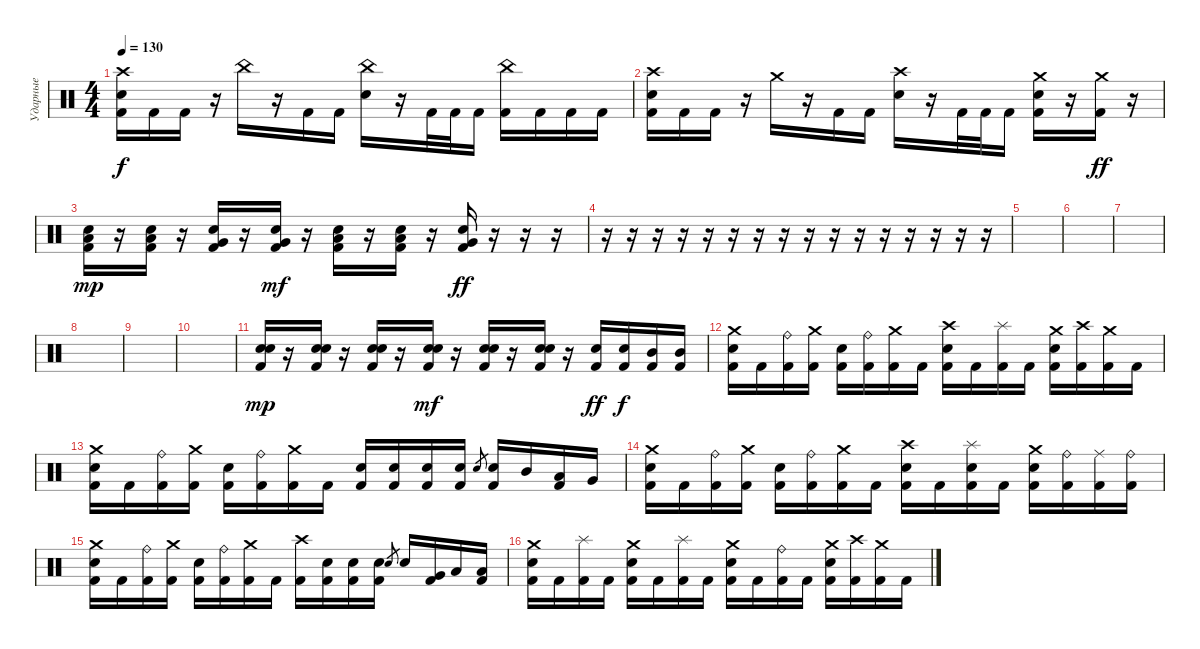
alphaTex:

\track ("Ударные" "Ударные") {instrument percussion}
\staff {score}
\articulation defaults
\ts (4 4)
\tempo 130
\clef neutral
\ks c
("Crash high (hit)" "Electric Snare (hit)" "Kick (hit) 2").16{dy f} "Kick (hit) 2".16 "Kick (hit) 2".16 r.16 "China (hit)".16 r.16 "Kick (hit) 2".16 "Kick (hit) 2".16 ("China (hit)" "Electric Snare (hit)").16 r.16 "Kick (hit) 2".32 "Kick (hit) 2".32 "Kick (hit) 2".16 ("China (hit)" "Kick (hit) 2").16 "Kick (hit) 2".16 "Kick (hit) 2".16 "Kick (hit) 2".16 |
("Crash high (hit)" "Electric Snare (hit)" "Kick (hit) 2").16 "Kick (hit) 2".16 "Kick (hit) 2".16 r.16 "Crash medium (hit)".16 r.16 "Kick (hit) 2".16 "Kick (hit) 2".16 ("Crash high (hit)" "Electric Snare (hit)").16 r.16 "Kick (hit) 2".32 "Kick (hit) 2".32 "Kick (hit) 2".16 ("Crash medium (hit)" "Electric Snare (hit)" "Kick (hit) 2").16 r.16 ("Crash medium (hit)" "Kick (hit) 2").16{dy ff} r.16 |
("Low Floor Tom (hit)" "Electric Snare (hit)" "Kick (hit) 2").16{dy mp} r.16 ("Low Floor Tom (hit)" "Electric Snare (hit)" "Kick (hit) 2").16 r.16 ("Very Low Tom (hit)" "Electric Snare (hit)" "Kick (hit) 2").16 r.16 ("Very Low Tom (hit)" "Electric Snare (hit)" "Kick (hit) 2").16{dy mf} r.16 ("Low Tom (hit)" "Electric Snare (hit)" "Kick (hit) 2").16 r.16 ("Low Tom (hit)" "Electric Snare (hit)" "Kick (hit) 2").16 r.16 ("Very Low Tom (hit)" "Electric Snare (hit)" "Kick (hit) 2").16{dy ff} r.16 r.16 r.16 |
r.16 r.16 r.16 r.16 r.16 r.16 r.16 r.16 r.16 r.16 r.16 r.16 r.16 r.16 r.16 r.16 |
|
|
|
|
|
|
("Electric Snare (hit)" "Electric Snare (hit)" "Kick (hit) 2").16{dy mp} r.16 ("Electric Snare (hit)" "Electric Snare (hit)" "Kick (hit) 2").16 r.16 ("Electric Snare (hit)" "Electric Snare (hit)" "Kick (hit) 2").16 r.16 ("Electric Snare (hit)" "Electric Snare (hit)" "Kick (hit) 2").16{dy mf} r.16 ("Electric Snare (hit)" "Electric Snare (hit)" "Kick (hit) 2").16 r.16 ("Electric Snare (hit)" "Electric Snare (hit)" "Kick (hit) 2").16 r.16 ("Electric Snare (hit)" "Kick (hit) 2").16{dy ff} ("Electric Snare (hit)" "Kick (hit) 2").16{dy f} ("Mid Tom (hit)" "Kick (hit) 2").16 ("Mid Tom (hit)" "Kick (hit) 2").16 |
("Crash medium (hit)" "Electric Snare (hit)" "Kick (hit) 2").16 "Kick (hit) 2".16 ("Ride (bell)" "Kick (hit) 2").16 ("Crash medium (hit)" "Kick (hit) 2").16 ("Electric Snare (hit)" "Kick (hit) 2").16 ("Ride (bell)" "Kick (hit) 2").16 ("Crash medium (hit)" "Kick (hit) 2").16 "Kick (hit) 2".16 ("Crash high (hit)" "Electric Snare (hit)" "Kick (hit) 2").16 "Kick (hit) 2".16 ("Splash (hit)" "Kick (hit) 2").16 "Kick (hit) 2".16 ("Crash medium (hit)" "Electric Snare (hit)" "Kick (hit) 2").16 ("Crash high (hit)" "Kick (hit) 2").16 ("Crash medium (hit)" "Kick (hit) 2").16 "Kick (hit) 2".16 |
("Crash medium (hit)" "Electric Snare (hit)" "Kick (hit) 2").16 "Kick (hit) 2".16 ("Ride (bell)" "Kick (hit) 2").16 ("Crash medium (hit)" "Kick (hit) 2").16 ("Electric Snare (hit)" "Kick (hit) 2").16 ("Ride (bell)" "Kick (hit) 2").16 ("Crash medium (hit)" "Kick (hit) 2").16 "Kick (hit) 2".16 ("Electric Snare (hit)" "Kick (hit) 2").16 ("Electric Snare (hit)" "Kick (hit) 2").16 ("Electric Snare (hit)" "Kick (hit) 2").16 ("Electric Snare (hit)" "Kick (hit) 2").16 "Electric Snare (hit)".8{gr} ("Electric Snare (hit)" "Kick (hit) 2").16 "Mid Tom (hit)".16 ("Low Tom (hit)" "Kick (hit) 2").16 "Very Low Tom (hit)".16 |
("Crash medium (hit)" "Electric Snare (hit)" "Kick (hit) 2").16 "Kick (hit) 2".16 ("Ride (bell)" "Kick (hit) 2").16 ("Crash medium (hit)" "Kick (hit) 2").16 ("Electric Snare (hit)" "Kick (hit) 2").16 ("Ride (bell)" "Kick (hit) 2").16 ("Crash medium (hit)" "Kick (hit) 2").16 "Kick (hit) 2".16 ("Crash high (hit)" "Electric Snare (hit)" "Kick (hit) 2").16 "Kick (hit) 2".16 ("Splash (hit)" "Electric Snare (hit)" "Kick (hit) 2").16 "Kick (hit) 2".16 ("Crash medium (hit)" "Electric Snare (hit)" "Kick (hit) 2").16 ("Ride (bell)" "Kick (hit) 2").16 ("Ride (middle)" "Kick (hit) 2").16 ("Ride (bell)" "Kick (hit) 2").16 |
("Crash medium (hit)" "Electric Snare (hit)" "Kick (hit) 2").16 "Kick (hit) 2".16 ("Ride (bell)" "Kick (hit) 2").16 ("Crash medium (hit)" "Kick (hit) 2").16 ("Electric Snare (hit)" "Kick (hit) 2").16 ("Ride (bell)" "Kick (hit) 2").16 ("Crash medium (hit)" "Kick (hit) 2").16 "Kick (hit) 2".16 ("Crash high (hit)" "Kick (hit) 2").16 ("Electric Snare (hit)" "Kick (hit) 2").16 ("Electric Snare (hit)" "Kick (hit) 2").16 ("Electric Snare (hit)" "Kick (hit) 2").16 "Electric Snare (hit)".8{gr} "Electric Snare (hit)".16 ("Very Low Tom (hit)" "Kick (hit) 2").16 "Low Tom (hit)".16 ("Low Tom (hit)" "Kick (hit) 2").16 |
("Crash medium (hit)" "Electric Snare (hit)" "Kick (hit) 2").16 "Kick (hit) 2".16 ("Splash (hit)" "Kick (hit) 2").16 "Kick (hit) 2".16 ("Crash medium (hit)" "Electric Snare (hit)" "Kick (hit) 2").16 "Kick (hit) 2".16 ("Splash (hit)" "Kick (hit) 2").16 "Kick (hit) 2".16 ("Crash medium (hit)" "Electric Snare (hit)" "Kick (hit) 2").16 "Kick (hit) 2".16 ("Ride (bell)" "Kick (hit) 2").16 "Kick (hit) 2".16 ("Crash medium (hit)" "Electric Snare (hit)" "Kick (hit) 2").16 ("Crash high (hit)" "Kick (hit) 2").16 ("Crash medium (hit)" "Kick (hit) 2").16 "Kick (hit) 2".16
